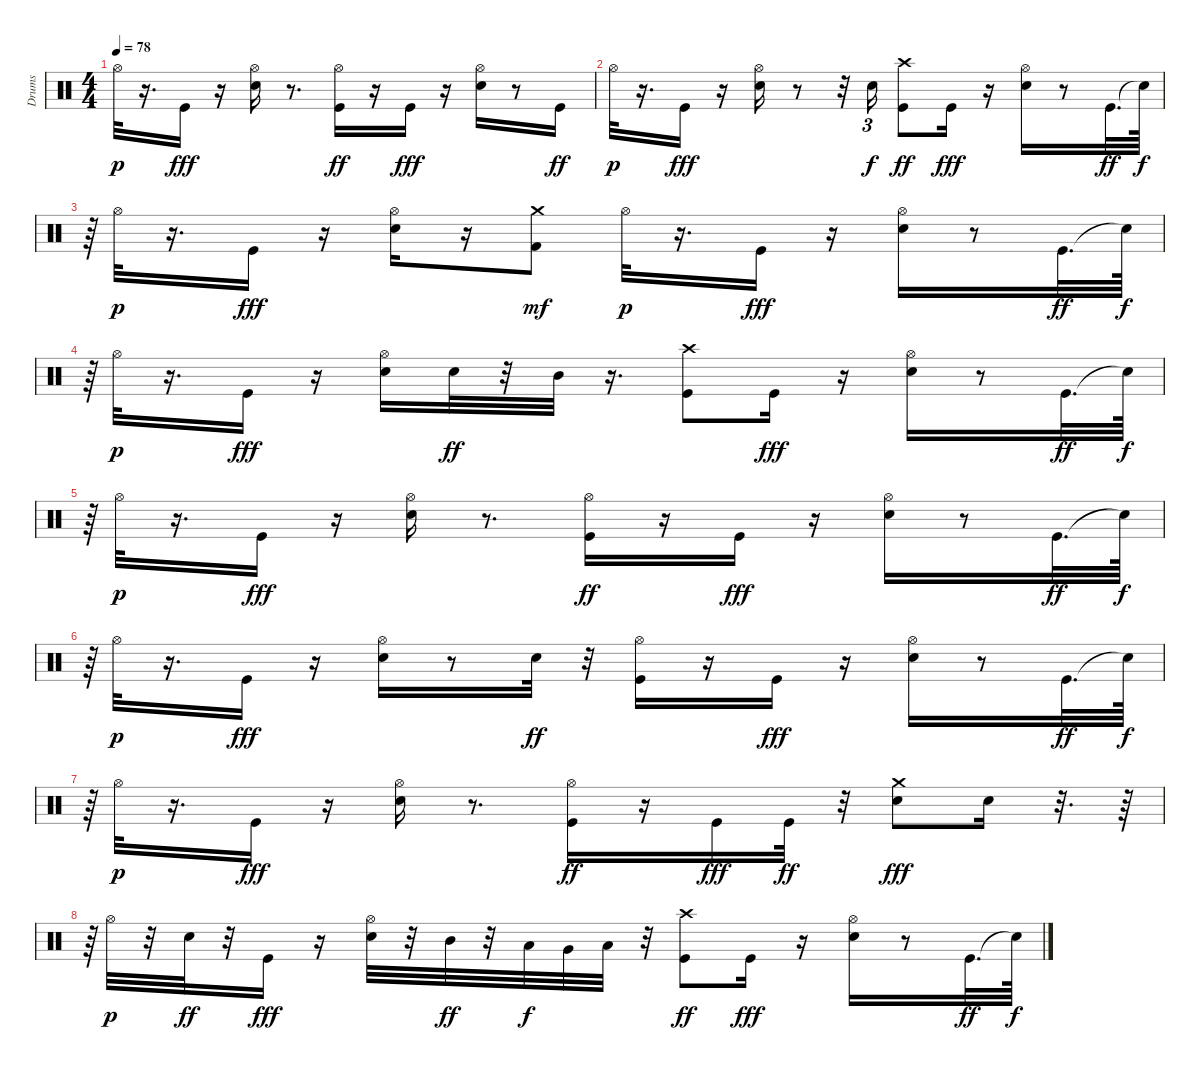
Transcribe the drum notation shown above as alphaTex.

\track ("Drums" "Drums") {instrument percussion}
\staff {score}
\articulation defaults
\ts (4 4)
\tempo 78
\clef neutral
\ks c "Hi-Hat (open)".32{dy p}
r.16{d} "Kick (hit)".16{dy fff} r.16 ("Hi-Hat (open)" "Electric Snare (hit)").16 r.8{d} ("Hi-Hat (open)" "Kick (hit)").16{dy ff} r.16 "Kick (hit)".16{dy fff} r.16 ("Hi-Hat (open)" "Electric Snare (hit)").16 r.8 "Kick (hit)".16{dy ff} |
"Hi-Hat (open)".32{dy p} r.16{d} "Kick (hit)".16{dy fff} r.16 ("Hi-Hat (open)" "Electric Snare (hit)").16 r.8 r.32 "Electric Snare (hit)".16{tu (3 2) dy f} ("Crash high (hit)" "Kick (hit)").8{dy ff} "Kick (hit)".16{dy fff} r.16 ("Hi-Hat (open)" "Electric Snare (hit)").16 r.8 "Kick (hit)".32{d dy ff} "Snare (hit)"{t}.64{dy f} |
r.64{tu (3 2)} "Hi-Hat (open)".32{dy p} r.16{d} "Kick (hit)".16{dy fff} r.16 ("Hi-Hat (open)" "Electric Snare (hit)").16 r.16 ("Kick (hit) 2" "Crash medium (hit)").8{dy mf} "Hi-Hat (open)".32{dy p} r.16{d} "Kick (hit)".16{dy fff} r.16 ("Hi-Hat (open)" "Electric Snare (hit)").16 r.8 "Kick (hit)".32{d dy ff} "Snare (hit)"{t}.64{dy f} |
r.64{tu (3 2)} "Hi-Hat (open)".32{dy p} r.16{d} "Kick (hit)".16{dy fff} r.16 ("Hi-Hat (open)" "Electric Snare (hit)").16 "Electric Snare (hit)".32{dy ff} r.32 "Mid Tom (hit)".32 r.16{d} ("Crash high (hit)" "Kick (hit)").8 "Kick (hit)".16{dy fff} r.16 ("Hi-Hat (open)" "Electric Snare (hit)").16 r.8 "Kick (hit)".32{d dy ff} "Snare (hit)"{t}.64{dy f} |
r.64{tu (3 2)} "Hi-Hat (open)".32{dy p} r.16{d} "Kick (hit)".16{dy fff} r.16 ("Hi-Hat (open)" "Electric Snare (hit)").16 r.8{d} ("Hi-Hat (open)" "Kick (hit)").16{dy ff} r.16 "Kick (hit)".16{dy fff} r.16 ("Hi-Hat (open)" "Electric Snare (hit)").16 r.8 "Kick (hit)".32{d dy ff} "Snare (hit)"{t}.64{dy f} |
r.64{tu (3 2)} "Hi-Hat (open)".32{dy p} r.16{d} "Kick (hit)".16{dy fff} r.16 ("Hi-Hat (open)" "Electric Snare (hit)").16 r.8 "Electric Snare (hit)".32{dy ff} r.32 ("Hi-Hat (open)" "Kick (hit)").16 r.16 "Kick (hit)".16{dy fff} r.16 ("Hi-Hat (open)" "Electric Snare (hit)").16 r.8 "Kick (hit)".32{d dy ff} "Snare (hit)"{t}.64{dy f} |
r.64{tu (3 2)} "Hi-Hat (open)".32{dy p} r.16{d} "Kick (hit)".16{dy fff} r.16 ("Hi-Hat (open)" "Electric Snare (hit)").16 r.8{d} ("Hi-Hat (open)" "Kick (hit)").16{dy ff} r.16 "Kick (hit)".16{dy fff} "Kick (hit)".32{dy ff} r.32 ("Crash medium (hit)" "Electric Snare (hit)").8{dy fff} "Electric Snare (hit)".16 r.32{d} r.64 |
r.64{tu (3 2)} "Hi-Hat (open)".32{dy p} r.32 "Electric Snare (hit)".32{dy ff} r.32 "Kick (hit)".16{dy fff} r.16 ("Hi-Hat (open)" "Electric Snare (hit)").32 r.32 "Mid Tom (hit)".32{dy ff} r.32 "Low Tom (hit)".32{dy f} "Very Low Tom (hit)".32 "Low Floor Tom (hit)".32 r.32 ("Crash high (hit)" "Kick (hit)").8{dy ff} "Kick (hit)".16{dy fff} r.16 ("Hi-Hat (open)" "Electric Snare (hit)").16 r.8 "Kick (hit)".32{d dy ff} "Snare (hit)"{t}.64{dy f}
